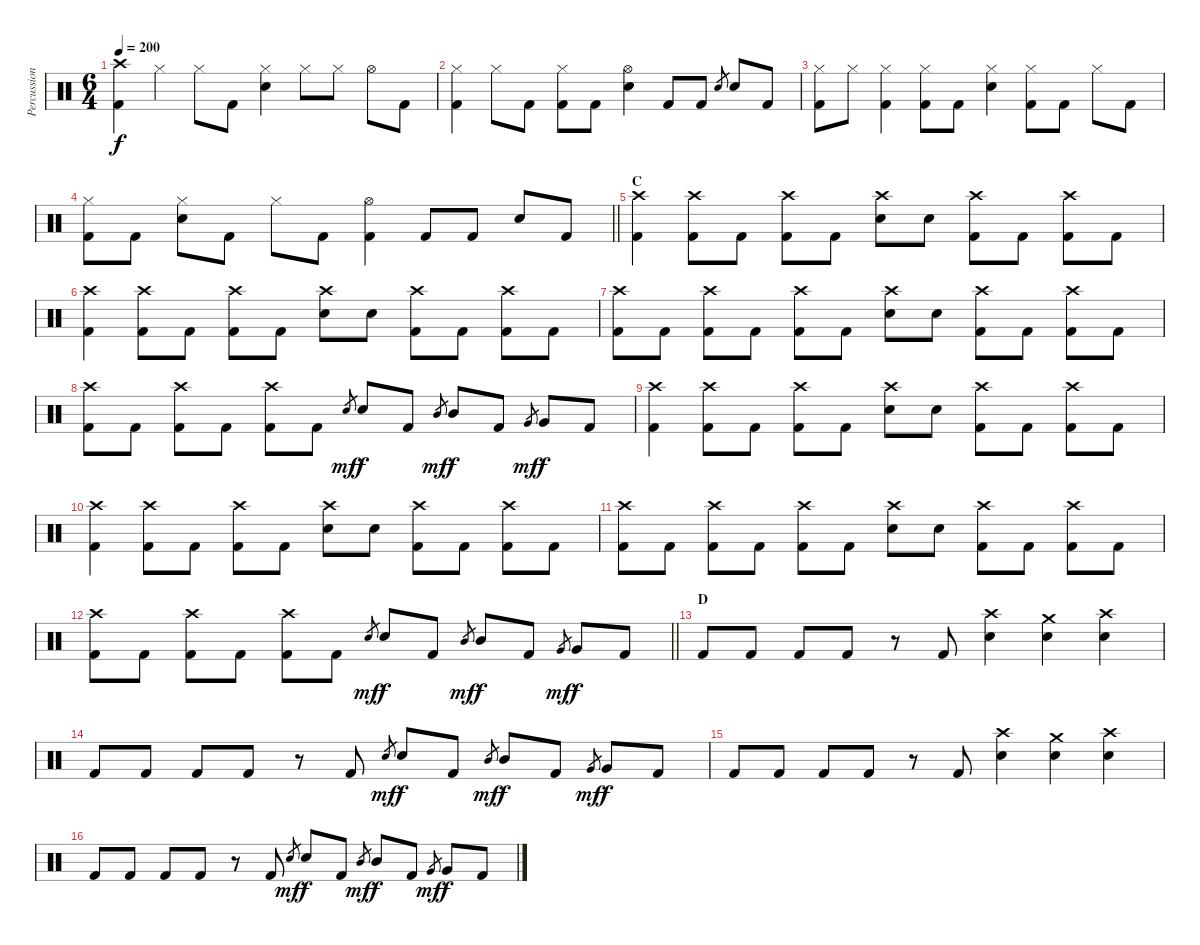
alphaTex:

\track ("Percussion" "Percussion") {instrument percussion}
\staff {score}
\articulation defaults
\ts (6 4)
\tempo 200
\clef neutral
\ks c
("Crash high (hit)" "Kick (hit) 2").4{dy f} "Hi-Hat (closed)".4 "Hi-Hat (closed)".8 "Kick (hit) 2".8 ("Hi-Hat (closed)" "Electric Snare (hit)").4 "Hi-Hat (closed)".8 "Hi-Hat (closed)".8 "Hi-Hat (open)".8 "Kick (hit) 2".8 |
("Hi-Hat (closed)" "Kick (hit) 2").4 "Hi-Hat (closed)".8 "Kick (hit) 2".8 ("Hi-Hat (closed)" "Kick (hit) 2").8 "Kick (hit) 2".8 ("Hi-Hat (open)" "Electric Snare (hit)").4 "Kick (hit) 2".8 "Kick (hit) 2".8 "Electric Snare (hit)".8{gr} "Electric Snare (hit)".8 "Kick (hit) 2".8 |
("Hi-Hat (closed)" "Kick (hit) 2").8 "Hi-Hat (closed)".8 ("Hi-Hat (closed)" "Kick (hit) 2").4 ("Hi-Hat (closed)" "Kick (hit) 2").8 "Kick (hit) 2".8 ("Hi-Hat (closed)" "Electric Snare (hit)").4 ("Hi-Hat (closed)" "Kick (hit) 2").8 "Kick (hit) 2".8 "Hi-Hat (closed)".8 "Kick (hit) 2".8 |
\barLineRight lightlight
("Hi-Hat (closed)" "Kick (hit) 2").8 "Kick (hit) 2".8 ("Hi-Hat (closed)" "Electric Snare (hit)").8 "Kick (hit) 2".8 "Hi-Hat (closed)".8 "Kick (hit) 2".8 ("Hi-Hat (open)" "Kick (hit) 2").4 "Kick (hit) 2".8 "Kick (hit) 2".8 "Electric Snare (hit)".8 "Kick (hit) 2".8 |
\section ("" "C")
("Crash high (hit)" "Kick (hit) 2").4 ("Crash high (hit)" "Kick (hit) 2").8 "Kick (hit) 2".8 ("Crash high (hit)" "Kick (hit) 2").8 "Kick (hit) 2".8 ("Crash high (hit)" "Electric Snare (hit)").8 "Electric Snare (hit)".8 ("Crash high (hit)" "Kick (hit) 2").8 "Kick (hit) 2".8 ("Crash high (hit)" "Kick (hit) 2").8 "Kick (hit) 2".8 |
("Crash high (hit)" "Kick (hit) 2").4 ("Crash high (hit)" "Kick (hit) 2").8 "Kick (hit) 2".8 ("Crash high (hit)" "Kick (hit) 2").8 "Kick (hit) 2".8 ("Crash high (hit)" "Electric Snare (hit)").8 "Electric Snare (hit)".8 ("Crash high (hit)" "Kick (hit) 2").8 "Kick (hit) 2".8 ("Crash high (hit)" "Kick (hit) 2").8 "Kick (hit) 2".8 |
("Crash high (hit)" "Kick (hit) 2").8 "Kick (hit) 2".8 ("Crash high (hit)" "Kick (hit) 2").8 "Kick (hit) 2".8 ("Crash high (hit)" "Kick (hit) 2").8 "Kick (hit) 2".8 ("Crash high (hit)" "Electric Snare (hit)").8 "Electric Snare (hit)".8 ("Crash high (hit)" "Kick (hit) 2").8 "Kick (hit) 2".8 ("Crash high (hit)" "Kick (hit) 2").8 "Kick (hit) 2".8 |
("Crash high (hit)" "Kick (hit) 2").8 "Kick (hit) 2".8 ("Crash high (hit)" "Kick (hit) 2").8 "Kick (hit) 2".8 ("Crash high (hit)" "Kick (hit) 2").8 "Kick (hit) 2".8 "Electric Snare (hit)".8{gr dy mf} "Electric Snare (hit)".8{dy f} "Kick (hit) 2".8 "Mid Tom (hit)".8{gr dy mf} "Mid Tom (hit)".8{dy f} "Kick (hit) 2".8 "Very Low Tom (hit)".8{gr dy mf} "Very Low Tom (hit)".8{dy f} "Kick (hit) 2".8 |
("Crash high (hit)" "Kick (hit) 2").4 ("Crash high (hit)" "Kick (hit) 2").8 "Kick (hit) 2".8 ("Crash high (hit)" "Kick (hit) 2").8 "Kick (hit) 2".8 ("Crash high (hit)" "Electric Snare (hit)").8 "Electric Snare (hit)".8 ("Crash high (hit)" "Kick (hit) 2").8 "Kick (hit) 2".8 ("Crash high (hit)" "Kick (hit) 2").8 "Kick (hit) 2".8 |
("Crash high (hit)" "Kick (hit) 2").4 ("Crash high (hit)" "Kick (hit) 2").8 "Kick (hit) 2".8 ("Crash high (hit)" "Kick (hit) 2").8 "Kick (hit) 2".8 ("Crash high (hit)" "Electric Snare (hit)").8 "Electric Snare (hit)".8 ("Crash high (hit)" "Kick (hit) 2").8 "Kick (hit) 2".8 ("Crash high (hit)" "Kick (hit) 2").8 "Kick (hit) 2".8 |
("Crash high (hit)" "Kick (hit) 2").8 "Kick (hit) 2".8 ("Crash high (hit)" "Kick (hit) 2").8 "Kick (hit) 2".8 ("Crash high (hit)" "Kick (hit) 2").8 "Kick (hit) 2".8 ("Crash high (hit)" "Electric Snare (hit)").8 "Electric Snare (hit)".8 ("Crash high (hit)" "Kick (hit) 2").8 "Kick (hit) 2".8 ("Crash high (hit)" "Kick (hit) 2").8 "Kick (hit) 2".8 |
\barLineRight lightlight
("Crash high (hit)" "Kick (hit) 2").8 "Kick (hit) 2".8 ("Crash high (hit)" "Kick (hit) 2").8 "Kick (hit) 2".8 ("Crash high (hit)" "Kick (hit) 2").8 "Kick (hit) 2".8 "Electric Snare (hit)".8{gr dy mf} "Electric Snare (hit)".8{dy f} "Kick (hit) 2".8 "Mid Tom (hit)".8{gr dy mf} "Mid Tom (hit)".8{dy f} "Kick (hit) 2".8 "Very Low Tom (hit)".8{gr dy mf} "Very Low Tom (hit)".8{dy f} "Kick (hit) 2".8 |
\section ("" "D")
"Kick (hit) 2".8 "Kick (hit) 2".8 "Kick (hit) 2".8 "Kick (hit) 2".8 r.8 "Kick (hit) 2".8 ("Crash high (hit)" "Electric Snare (hit)").4 ("Crash medium (hit)" "Electric Snare (hit)").4 ("Crash high (hit)" "Electric Snare (hit)").4 |
"Kick (hit) 2".8 "Kick (hit) 2".8 "Kick (hit) 2".8 "Kick (hit) 2".8 r.8 "Kick (hit) 2".8 "Electric Snare (hit)".8{gr dy mf} "Electric Snare (hit)".8{dy f} "Kick (hit) 2".8 "Mid Tom (hit)".8{gr dy mf} "Mid Tom (hit)".8{dy f} "Kick (hit) 2".8 "Very Low Tom (hit)".8{gr dy mf} "Very Low Tom (hit)".8{dy f} "Kick (hit) 2".8 |
"Kick (hit) 2".8 "Kick (hit) 2".8 "Kick (hit) 2".8 "Kick (hit) 2".8 r.8 "Kick (hit) 2".8 ("Crash high (hit)" "Electric Snare (hit)").4 ("Crash medium (hit)" "Electric Snare (hit)").4 ("Crash high (hit)" "Electric Snare (hit)").4 |
"Kick (hit) 2".8 "Kick (hit) 2".8 "Kick (hit) 2".8 "Kick (hit) 2".8 r.8 "Kick (hit) 2".8 "Electric Snare (hit)".8{gr dy mf} "Electric Snare (hit)".8{dy f} "Kick (hit) 2".8 "Mid Tom (hit)".8{gr dy mf} "Mid Tom (hit)".8{dy f} "Kick (hit) 2".8 "Very Low Tom (hit)".8{gr dy mf} "Very Low Tom (hit)".8{dy f} "Kick (hit) 2".8
